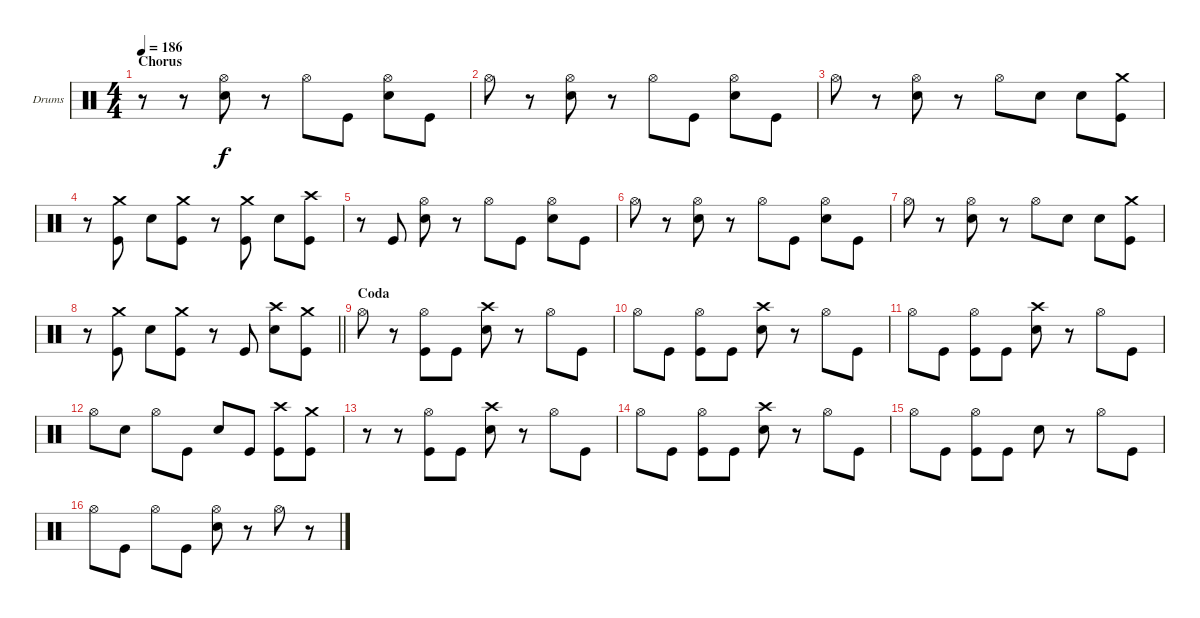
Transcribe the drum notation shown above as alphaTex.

\bracketExtendMode groupsimilarinstruments
\firstSystemTrackNameOrientation horizontal
\otherSystemsTrackNameOrientation horizontal
\track ("Drumkit" "Drums") {instrument percussion}
\staff {score}
\articulation defaults
\ts (4 4)
\section ("" "Chorus")
\tempo 186
\clef neutral
\scale
0.333333
\ks c
r.8{dy f} r.8 ("Hi-Hat (open)" "Snare (hit) 2").8 r.8 "Hi-Hat (open)".8 "Kick (hit)".8 ("Hi-Hat (open)" "Snare (hit) 2").8 "Kick (hit)".8 |
\scale
0.333333 "Hi-Hat (open)".8 r.8 ("Hi-Hat (open)" "Snare (hit) 2").8 r.8 "Hi-Hat (open)".8 "Kick (hit)".8 ("Hi-Hat (open)" "Snare (hit) 2").8 "Kick (hit)".8 |
\scale
0.333333 "Hi-Hat (open)".8 r.8 ("Hi-Hat (open)" "Snare (hit) 2").8 r.8 "Hi-Hat (open)".8 "Snare (hit) 2".8 "Snare (hit) 2".8 ("Crash medium (hit)" "Kick (hit)").8 |
\scale
0.333333 r.8 ("Crash medium (hit)" "Kick (hit)").8 "Snare (hit) 2".8 ("Crash medium (hit)" "Kick (hit)").8 r.8 ("Crash medium (hit)" "Kick (hit)").8 "Snare (hit) 2".8 ("Crash high (hit)" "Kick (hit)").8 |
\scale
0.333333 r.8 "Kick (hit)".8 ("Hi-Hat (open)" "Snare (hit) 2").8 r.8 "Hi-Hat (open)".8 "Kick (hit)".8 ("Hi-Hat (open)" "Snare (hit) 2").8 "Kick (hit)".8 |
\scale
0.333333 "Hi-Hat (open)".8 r.8 ("Hi-Hat (open)" "Snare (hit) 2").8 r.8 "Hi-Hat (open)".8 "Kick (hit)".8 ("Hi-Hat (open)" "Snare (hit) 2").8 "Kick (hit)".8 |
\scale
0.333333 "Hi-Hat (open)".8 r.8 ("Hi-Hat (open)" "Snare (hit) 2").8 r.8 "Hi-Hat (open)".8 "Snare (hit) 2".8 "Snare (hit) 2".8 ("Crash medium (hit)" "Kick (hit)").8 |
\scale
0.333333
\barLineRight lightlight
r.8 ("Crash medium (hit)" "Kick (hit)").8 "Snare (hit) 2".8 ("Crash medium (hit)" "Kick (hit)").8 r.8 "Kick (hit)".8 ("Crash high (hit)" "Snare (hit) 2").8 ("Crash medium (hit)" "Kick (hit)").8 |
\section ("" "Coda")
\scale
0.333333 "Hi-Hat (open)".8 r.8 ("Hi-Hat (open)" "Kick (hit)").8 "Kick (hit)".8 ("Crash high (hit)" "Snare (hit) 2").8 r.8 "Hi-Hat (open)".8 "Kick (hit)".8 |
\scale
0.333333 "Hi-Hat (open)".8 "Kick (hit)".8 ("Hi-Hat (open)" "Kick (hit)").8 "Kick (hit)".8 ("Crash high (hit)" "Snare (hit) 2").8 r.8 "Hi-Hat (open)".8 "Kick (hit)".8 |
\scale
0.333333 "Hi-Hat (open)".8 "Kick (hit)".8 ("Hi-Hat (open)" "Kick (hit)").8 "Kick (hit)".8 ("Crash high (hit)" "Snare (hit) 2").8 r.8 "Hi-Hat (open)".8 "Kick (hit)".8 |
\scale
0.333333 "Hi-Hat (open)".8 "Snare (hit) 2".8 "Hi-Hat (open)".8 "Kick (hit)".8 "Snare (hit) 2".8 "Kick (hit)".8 ("Crash high (hit)" "Kick (hit)").8 ("Crash medium (hit)" "Kick (hit)").8 |
\scale
0.333333 r.8 r.8 ("Hi-Hat (open)" "Kick (hit)").8 "Kick (hit)".8 ("Crash high (hit)" "Snare (hit) 2").8 r.8 "Hi-Hat (open)".8 "Kick (hit)".8 |
\scale
0.333333 "Hi-Hat (open)".8 "Kick (hit)".8 ("Hi-Hat (open)" "Kick (hit)").8 "Kick (hit)".8 ("Crash high (hit)" "Snare (hit) 2").8 r.8 "Hi-Hat (open)".8 "Kick (hit)".8 |
\scale
0.333333 "Hi-Hat (open)".8 "Kick (hit)".8 ("Hi-Hat (open)" "Kick (hit)").8 "Kick (hit)".8 "Snare (hit) 2".8 r.8 "Hi-Hat (open)".8 "Kick (hit)".8 |
\scale
0.333333 "Hi-Hat (open)".8 "Kick (hit)".8 "Hi-Hat (open)".8 "Kick (hit)".8 ("Hi-Hat (open)" "Snare (hit) 2").8 r.8 "Hi-Hat (open)".8 r.8
